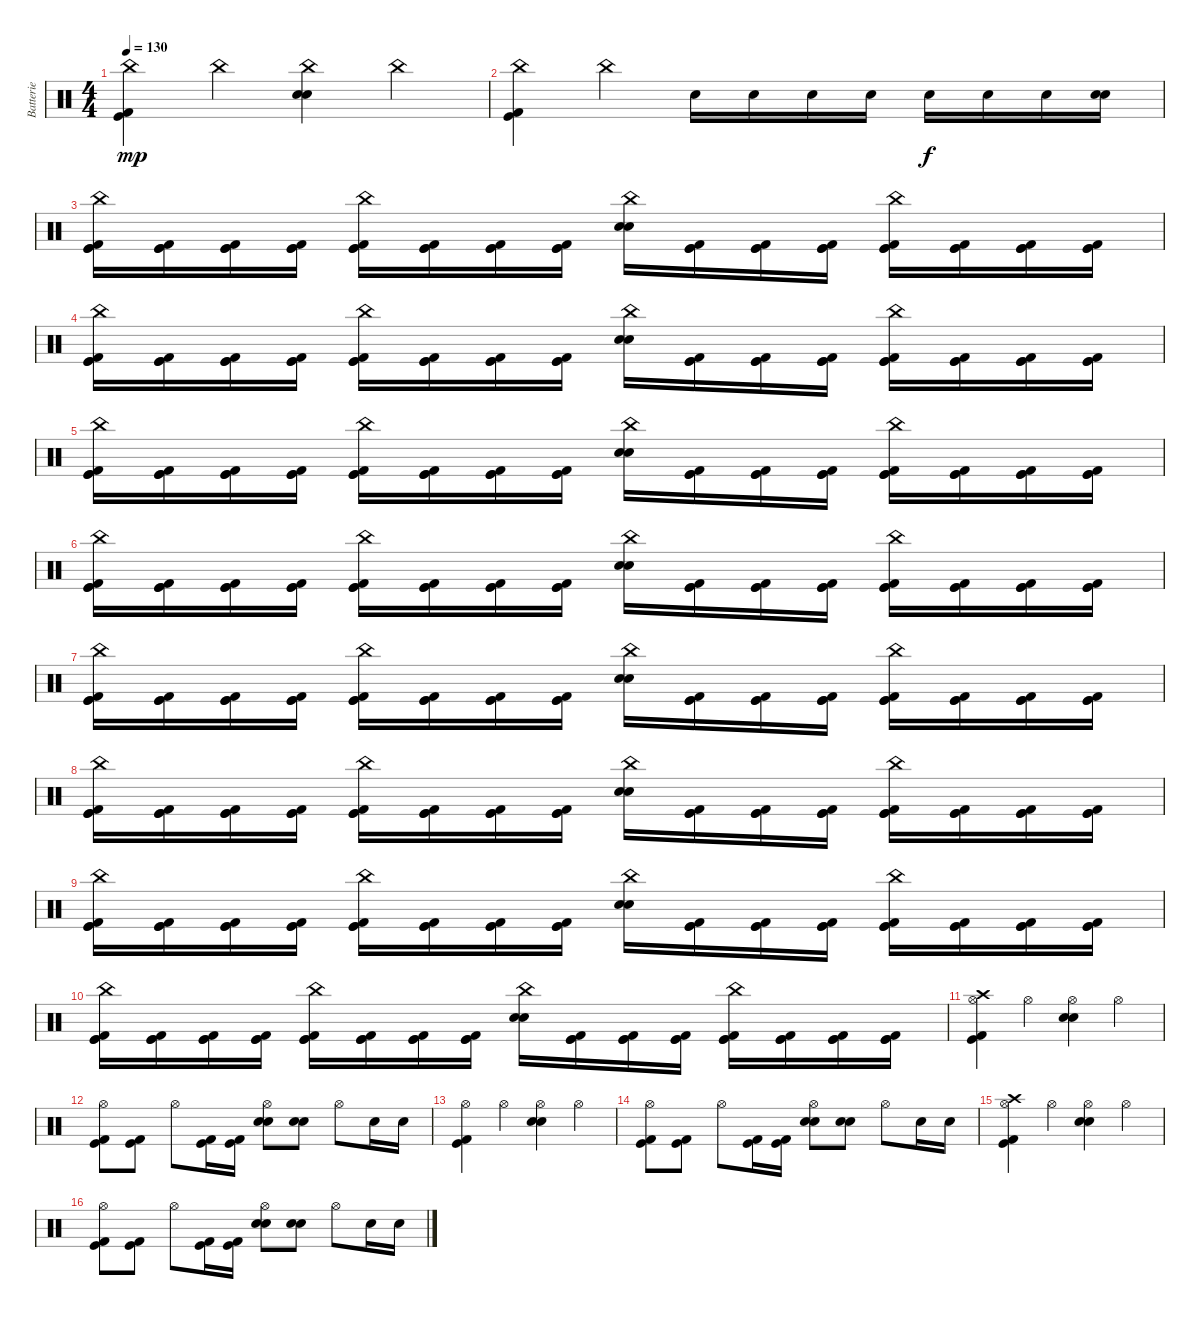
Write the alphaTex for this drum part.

\track ("Batterie" "Batterie") {instrument percussion}
\staff {score}
\articulation defaults
\ts (4 4)
\tempo 130
\clef neutral
\ks c
("China (hit)" "Kick (hit) 2" "Kick (hit)").4{dy mp} "China (hit)".4 ("China (hit)" "Electric Snare (hit)" "Electric Snare (hit)").4 "China (hit)".4 |
("China (hit)" "Kick (hit)" "Kick (hit) 2").4 "China (hit)".4 "Electric Snare (hit)".16 "Electric Snare (hit)".16 "Electric Snare (hit)".16 "Electric Snare (hit)".16 "Electric Snare (hit)".16{dy f} "Electric Snare (hit)".16 "Electric Snare (hit)".16 ("Electric Snare (hit)" "Electric Snare (hit)").16 |
("China (hit)" "Kick (hit)" "Kick (hit) 2" "Kick (hit)").16 ("Kick (hit)" "Kick (hit)" "Kick (hit) 2").16 ("Kick (hit)" "Kick (hit) 2" "Kick (hit)").16 ("Kick (hit)" "Kick (hit)" "Kick (hit) 2").16 ("China (hit)" "Kick (hit)" "Kick (hit) 2" "Kick (hit)").16 ("Kick (hit)" "Kick (hit)" "Kick (hit) 2").16 ("Kick (hit)" "Kick (hit) 2" "Kick (hit)").16 ("Kick (hit)" "Kick (hit)" "Kick (hit) 2").16 ("China (hit)" "Electric Snare (hit)" "Electric Snare (hit)").16 ("Kick (hit)" "Kick (hit)" "Kick (hit) 2").16 ("Kick (hit)" "Kick (hit) 2" "Kick (hit)").16 ("Kick (hit)" "Kick (hit)" "Kick (hit) 2").16 ("China (hit)" "Kick (hit)" "Kick (hit) 2" "Kick (hit)").16 ("Kick (hit)" "Kick (hit)" "Kick (hit) 2").16 ("Kick (hit)" "Kick (hit) 2" "Kick (hit)").16 ("Kick (hit)" "Kick (hit) 2" "Kick (hit)").16 |
("China (hit)" "Kick (hit)" "Kick (hit) 2" "Kick (hit)").16 ("Kick (hit)" "Kick (hit)" "Kick (hit) 2").16 ("Kick (hit)" "Kick (hit) 2" "Kick (hit)").16 ("Kick (hit)" "Kick (hit)" "Kick (hit) 2").16 ("China (hit)" "Kick (hit)" "Kick (hit) 2" "Kick (hit)").16 ("Kick (hit)" "Kick (hit)" "Kick (hit) 2").16 ("Kick (hit)" "Kick (hit) 2" "Kick (hit)").16 ("Kick (hit)" "Kick (hit)" "Kick (hit) 2").16 ("China (hit)" "Electric Snare (hit)" "Electric Snare (hit)").16 ("Kick (hit)" "Kick (hit)" "Kick (hit) 2").16 ("Kick (hit)" "Kick (hit) 2" "Kick (hit)").16 ("Kick (hit)" "Kick (hit)" "Kick (hit) 2").16 ("China (hit)" "Kick (hit)" "Kick (hit) 2" "Kick (hit)").16 ("Kick (hit)" "Kick (hit)" "Kick (hit) 2").16 ("Kick (hit)" "Kick (hit) 2" "Kick (hit)").16 ("Kick (hit)" "Kick (hit) 2" "Kick (hit)").16 |
("China (hit)" "Kick (hit)" "Kick (hit) 2" "Kick (hit)").16 ("Kick (hit)" "Kick (hit)" "Kick (hit) 2").16 ("Kick (hit)" "Kick (hit) 2" "Kick (hit)").16 ("Kick (hit)" "Kick (hit)" "Kick (hit) 2").16 ("China (hit)" "Kick (hit)" "Kick (hit) 2" "Kick (hit)").16 ("Kick (hit)" "Kick (hit)" "Kick (hit) 2").16 ("Kick (hit)" "Kick (hit) 2" "Kick (hit)").16 ("Kick (hit)" "Kick (hit)" "Kick (hit) 2").16 ("China (hit)" "Electric Snare (hit)" "Electric Snare (hit)").16 ("Kick (hit)" "Kick (hit)" "Kick (hit) 2").16 ("Kick (hit)" "Kick (hit) 2" "Kick (hit)").16 ("Kick (hit)" "Kick (hit)" "Kick (hit) 2").16 ("China (hit)" "Kick (hit)" "Kick (hit) 2" "Kick (hit)").16 ("Kick (hit)" "Kick (hit)" "Kick (hit) 2").16 ("Kick (hit)" "Kick (hit) 2" "Kick (hit)").16 ("Kick (hit)" "Kick (hit) 2" "Kick (hit)").16 |
("China (hit)" "Kick (hit)" "Kick (hit) 2" "Kick (hit)").16 ("Kick (hit)" "Kick (hit)" "Kick (hit) 2").16 ("Kick (hit)" "Kick (hit) 2" "Kick (hit)").16 ("Kick (hit)" "Kick (hit)" "Kick (hit) 2").16 ("China (hit)" "Kick (hit)" "Kick (hit) 2" "Kick (hit)").16 ("Kick (hit)" "Kick (hit)" "Kick (hit) 2").16 ("Kick (hit)" "Kick (hit) 2" "Kick (hit)").16 ("Kick (hit)" "Kick (hit)" "Kick (hit) 2").16 ("China (hit)" "Electric Snare (hit)" "Electric Snare (hit)").16 ("Kick (hit)" "Kick (hit)" "Kick (hit) 2").16 ("Kick (hit)" "Kick (hit) 2" "Kick (hit)").16 ("Kick (hit)" "Kick (hit)" "Kick (hit) 2").16 ("China (hit)" "Kick (hit)" "Kick (hit) 2" "Kick (hit)").16 ("Kick (hit)" "Kick (hit)" "Kick (hit) 2").16 ("Kick (hit)" "Kick (hit) 2" "Kick (hit)").16 ("Kick (hit)" "Kick (hit) 2" "Kick (hit)").16 |
("China (hit)" "Kick (hit)" "Kick (hit) 2" "Kick (hit)").16 ("Kick (hit)" "Kick (hit)" "Kick (hit) 2").16 ("Kick (hit)" "Kick (hit) 2" "Kick (hit)").16 ("Kick (hit)" "Kick (hit)" "Kick (hit) 2").16 ("China (hit)" "Kick (hit)" "Kick (hit) 2" "Kick (hit)").16 ("Kick (hit)" "Kick (hit)" "Kick (hit) 2").16 ("Kick (hit)" "Kick (hit) 2" "Kick (hit)").16 ("Kick (hit)" "Kick (hit)" "Kick (hit) 2").16 ("China (hit)" "Electric Snare (hit)" "Electric Snare (hit)").16 ("Kick (hit)" "Kick (hit)" "Kick (hit) 2").16 ("Kick (hit)" "Kick (hit) 2" "Kick (hit)").16 ("Kick (hit)" "Kick (hit)" "Kick (hit) 2").16 ("China (hit)" "Kick (hit)" "Kick (hit) 2" "Kick (hit)").16 ("Kick (hit)" "Kick (hit)" "Kick (hit) 2").16 ("Kick (hit)" "Kick (hit) 2" "Kick (hit)").16 ("Kick (hit)" "Kick (hit) 2" "Kick (hit)").16 |
("China (hit)" "Kick (hit)" "Kick (hit) 2" "Kick (hit)").16 ("Kick (hit)" "Kick (hit)" "Kick (hit) 2").16 ("Kick (hit)" "Kick (hit) 2" "Kick (hit)").16 ("Kick (hit)" "Kick (hit)" "Kick (hit) 2").16 ("China (hit)" "Kick (hit)" "Kick (hit) 2" "Kick (hit)").16 ("Kick (hit)" "Kick (hit)" "Kick (hit) 2").16 ("Kick (hit)" "Kick (hit) 2" "Kick (hit)").16 ("Kick (hit)" "Kick (hit)" "Kick (hit) 2").16 ("China (hit)" "Electric Snare (hit)" "Electric Snare (hit)").16 ("Kick (hit)" "Kick (hit)" "Kick (hit) 2").16 ("Kick (hit)" "Kick (hit) 2" "Kick (hit)").16 ("Kick (hit)" "Kick (hit)" "Kick (hit) 2").16 ("China (hit)" "Kick (hit)" "Kick (hit) 2" "Kick (hit)").16 ("Kick (hit)" "Kick (hit)" "Kick (hit) 2").16 ("Kick (hit)" "Kick (hit) 2" "Kick (hit)").16 ("Kick (hit)" "Kick (hit) 2" "Kick (hit)").16 |
("China (hit)" "Kick (hit)" "Kick (hit) 2" "Kick (hit)").16 ("Kick (hit)" "Kick (hit)" "Kick (hit) 2").16 ("Kick (hit)" "Kick (hit) 2" "Kick (hit)").16 ("Kick (hit)" "Kick (hit)" "Kick (hit) 2").16 ("China (hit)" "Kick (hit)" "Kick (hit) 2" "Kick (hit)").16 ("Kick (hit)" "Kick (hit)" "Kick (hit) 2").16 ("Kick (hit)" "Kick (hit) 2" "Kick (hit)").16 ("Kick (hit)" "Kick (hit)" "Kick (hit) 2").16 ("China (hit)" "Electric Snare (hit)" "Electric Snare (hit)").16 ("Kick (hit)" "Kick (hit)" "Kick (hit) 2").16 ("Kick (hit)" "Kick (hit) 2" "Kick (hit)").16 ("Kick (hit)" "Kick (hit)" "Kick (hit) 2").16 ("China (hit)" "Kick (hit)" "Kick (hit) 2" "Kick (hit)").16 ("Kick (hit)" "Kick (hit)" "Kick (hit) 2").16 ("Kick (hit)" "Kick (hit) 2" "Kick (hit)").16 ("Kick (hit)" "Kick (hit) 2" "Kick (hit)").16 |
("China (hit)" "Kick (hit)" "Kick (hit) 2" "Kick (hit)").16 ("Kick (hit)" "Kick (hit)" "Kick (hit) 2").16 ("Kick (hit)" "Kick (hit) 2" "Kick (hit)").16 ("Kick (hit)" "Kick (hit)" "Kick (hit) 2").16 ("China (hit)" "Kick (hit)" "Kick (hit) 2" "Kick (hit)").16 ("Kick (hit)" "Kick (hit)" "Kick (hit) 2").16 ("Kick (hit)" "Kick (hit) 2" "Kick (hit)").16 ("Kick (hit)" "Kick (hit)" "Kick (hit) 2").16 ("China (hit)" "Electric Snare (hit)" "Electric Snare (hit)").16 ("Kick (hit)" "Kick (hit)" "Kick (hit) 2").16 ("Kick (hit)" "Kick (hit) 2" "Kick (hit)").16 ("Kick (hit)" "Kick (hit)" "Kick (hit) 2").16 ("China (hit)" "Kick (hit)" "Kick (hit) 2" "Kick (hit)").16 ("Kick (hit)" "Kick (hit)" "Kick (hit) 2").16 ("Kick (hit)" "Kick (hit) 2" "Kick (hit)").16 ("Kick (hit)" "Kick (hit) 2" "Kick (hit)").16 |
("Hi-Hat (open)" "Crash high (hit)" "Kick (hit) 2" "Kick (hit)").4 "Hi-Hat (open)".4 ("Hi-Hat (open)" "Electric Snare (hit)" "Electric Snare (hit)").4 "Hi-Hat (open)".4 |
("Hi-Hat (open)" "Kick (hit) 2" "Kick (hit)").8 ("Kick (hit)" "Kick (hit) 2").8 "Hi-Hat (open)".8 ("Kick (hit) 2" "Kick (hit)").16 ("Kick (hit)" "Kick (hit) 2").16 ("Hi-Hat (open)" "Electric Snare (hit)" "Electric Snare (hit)").8 ("Electric Snare (hit)" "Electric Snare (hit)").8 "Hi-Hat (open)".8 "Electric Snare (hit)".16 "Electric Snare (hit)".16 |
("Hi-Hat (open)" "Kick (hit) 2" "Kick (hit)").4 "Hi-Hat (open)".4 ("Hi-Hat (open)" "Electric Snare (hit)" "Electric Snare (hit)").4 "Hi-Hat (open)".4 |
("Hi-Hat (open)" "Kick (hit) 2" "Kick (hit)").8 ("Kick (hit)" "Kick (hit) 2").8 "Hi-Hat (open)".8 ("Kick (hit) 2" "Kick (hit)").16 ("Kick (hit)" "Kick (hit) 2").16 ("Hi-Hat (open)" "Electric Snare (hit)" "Electric Snare (hit)").8 ("Electric Snare (hit)" "Electric Snare (hit)").8 "Hi-Hat (open)".8 "Electric Snare (hit)".16 "Electric Snare (hit)".16 |
("Hi-Hat (open)" "Crash high (hit)" "Kick (hit) 2" "Kick (hit)").4 "Hi-Hat (open)".4 ("Hi-Hat (open)" "Electric Snare (hit)" "Electric Snare (hit)").4 "Hi-Hat (open)".4 |
("Hi-Hat (open)" "Kick (hit) 2" "Kick (hit)").8 ("Kick (hit)" "Kick (hit) 2").8 "Hi-Hat (open)".8 ("Kick (hit) 2" "Kick (hit)").16 ("Kick (hit)" "Kick (hit) 2").16 ("Hi-Hat (open)" "Electric Snare (hit)" "Electric Snare (hit)").8 ("Electric Snare (hit)" "Electric Snare (hit)").8 "Hi-Hat (open)".8 "Electric Snare (hit)".16 "Electric Snare (hit)".16
